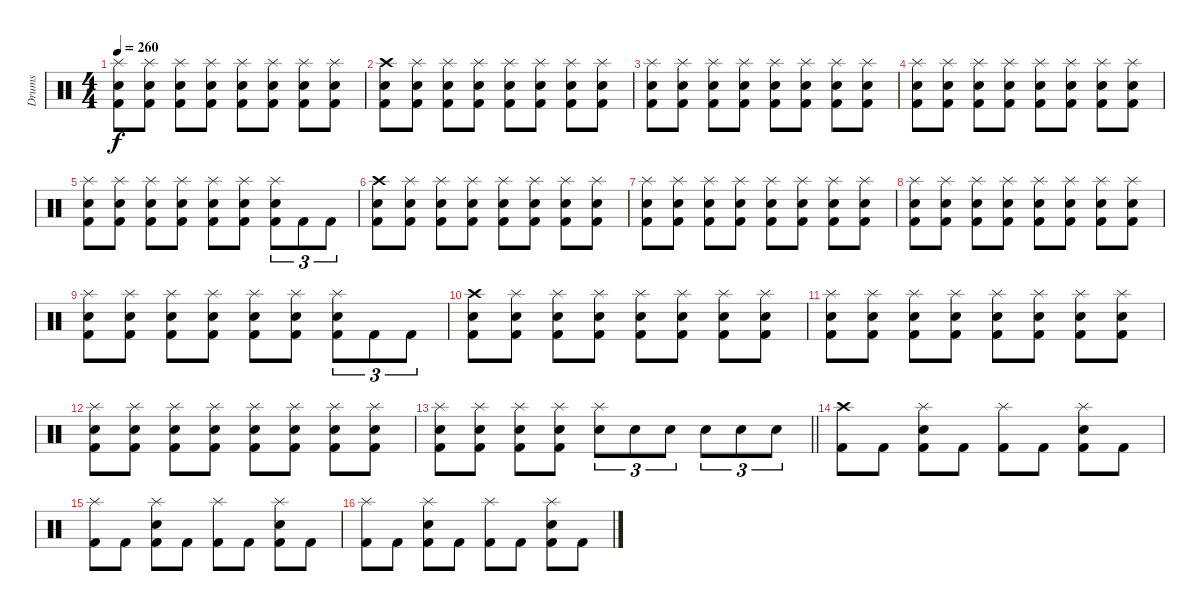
\track ("Drums" "Drums") {instrument percussion}
\staff {score}
\articulation defaults
\ts (4 4)
\tempo 260
\clef neutral
\ks c
("Splash (hit)" "Electric Snare (hit)" "Kick (hit) 2").8{dy f} ("Splash (hit)" "Electric Snare (hit)" "Kick (hit) 2").8 ("Splash (hit)" "Electric Snare (hit)" "Kick (hit) 2").8 ("Splash (hit)" "Electric Snare (hit)" "Kick (hit) 2").8 ("Splash (hit)" "Electric Snare (hit)" "Kick (hit) 2").8 ("Splash (hit)" "Electric Snare (hit)" "Kick (hit) 2").8 ("Splash (hit)" "Electric Snare (hit)" "Kick (hit) 2").8 ("Splash (hit)" "Electric Snare (hit)" "Kick (hit) 2").8 |
("Crash high (hit)" "Electric Snare (hit)" "Kick (hit) 2").8 ("Splash (hit)" "Electric Snare (hit)" "Kick (hit) 2").8 ("Splash (hit)" "Electric Snare (hit)" "Kick (hit) 2").8 ("Splash (hit)" "Electric Snare (hit)" "Kick (hit) 2").8 ("Splash (hit)" "Electric Snare (hit)" "Kick (hit) 2").8 ("Splash (hit)" "Electric Snare (hit)" "Kick (hit) 2").8 ("Splash (hit)" "Electric Snare (hit)" "Kick (hit) 2").8 ("Splash (hit)" "Electric Snare (hit)" "Kick (hit) 2").8 |
("Splash (hit)" "Electric Snare (hit)" "Kick (hit) 2").8 ("Splash (hit)" "Electric Snare (hit)" "Kick (hit) 2").8 ("Splash (hit)" "Electric Snare (hit)" "Kick (hit) 2").8 ("Splash (hit)" "Electric Snare (hit)" "Kick (hit) 2").8 ("Splash (hit)" "Electric Snare (hit)" "Kick (hit) 2").8 ("Splash (hit)" "Electric Snare (hit)" "Kick (hit) 2").8 ("Splash (hit)" "Electric Snare (hit)" "Kick (hit) 2").8 ("Splash (hit)" "Electric Snare (hit)" "Kick (hit) 2").8 |
("Splash (hit)" "Electric Snare (hit)" "Kick (hit) 2").8 ("Splash (hit)" "Electric Snare (hit)" "Kick (hit) 2").8 ("Splash (hit)" "Electric Snare (hit)" "Kick (hit) 2").8 ("Splash (hit)" "Electric Snare (hit)" "Kick (hit) 2").8 ("Splash (hit)" "Electric Snare (hit)" "Kick (hit) 2").8 ("Splash (hit)" "Electric Snare (hit)" "Kick (hit) 2").8 ("Splash (hit)" "Electric Snare (hit)" "Kick (hit) 2").8 ("Splash (hit)" "Electric Snare (hit)" "Kick (hit) 2").8 |
("Splash (hit)" "Electric Snare (hit)" "Kick (hit) 2").8 ("Splash (hit)" "Electric Snare (hit)" "Kick (hit) 2").8 ("Splash (hit)" "Electric Snare (hit)" "Kick (hit) 2").8 ("Splash (hit)" "Electric Snare (hit)" "Kick (hit) 2").8 ("Splash (hit)" "Electric Snare (hit)" "Kick (hit) 2").8 ("Splash (hit)" "Electric Snare (hit)" "Kick (hit) 2").8 ("Splash (hit)" "Electric Snare (hit)" "Kick (hit) 2").8{tu (3 2)} "Kick (hit) 2".8{tu (3 2)} "Kick (hit) 2".8{tu (3 2)} |
("Crash high (hit)" "Electric Snare (hit)" "Kick (hit) 2").8 ("Splash (hit)" "Electric Snare (hit)" "Kick (hit) 2").8 ("Splash (hit)" "Electric Snare (hit)" "Kick (hit) 2").8 ("Splash (hit)" "Electric Snare (hit)" "Kick (hit) 2").8 ("Splash (hit)" "Electric Snare (hit)" "Kick (hit) 2").8 ("Splash (hit)" "Electric Snare (hit)" "Kick (hit) 2").8 ("Splash (hit)" "Electric Snare (hit)" "Kick (hit) 2").8 ("Splash (hit)" "Electric Snare (hit)" "Kick (hit) 2").8 |
("Splash (hit)" "Electric Snare (hit)" "Kick (hit) 2").8 ("Splash (hit)" "Electric Snare (hit)" "Kick (hit) 2").8 ("Splash (hit)" "Electric Snare (hit)" "Kick (hit) 2").8 ("Splash (hit)" "Electric Snare (hit)" "Kick (hit) 2").8 ("Splash (hit)" "Electric Snare (hit)" "Kick (hit) 2").8 ("Splash (hit)" "Electric Snare (hit)" "Kick (hit) 2").8 ("Splash (hit)" "Electric Snare (hit)" "Kick (hit) 2").8 ("Splash (hit)" "Electric Snare (hit)" "Kick (hit) 2").8 |
("Splash (hit)" "Electric Snare (hit)" "Kick (hit) 2").8 ("Splash (hit)" "Electric Snare (hit)" "Kick (hit) 2").8 ("Splash (hit)" "Electric Snare (hit)" "Kick (hit) 2").8 ("Splash (hit)" "Electric Snare (hit)" "Kick (hit) 2").8 ("Splash (hit)" "Electric Snare (hit)" "Kick (hit) 2").8 ("Splash (hit)" "Electric Snare (hit)" "Kick (hit) 2").8 ("Splash (hit)" "Electric Snare (hit)" "Kick (hit) 2").8 ("Splash (hit)" "Electric Snare (hit)" "Kick (hit) 2").8 |
("Splash (hit)" "Electric Snare (hit)" "Kick (hit) 2").8 ("Splash (hit)" "Electric Snare (hit)" "Kick (hit) 2").8 ("Splash (hit)" "Electric Snare (hit)" "Kick (hit) 2").8 ("Splash (hit)" "Electric Snare (hit)" "Kick (hit) 2").8 ("Splash (hit)" "Electric Snare (hit)" "Kick (hit) 2").8 ("Splash (hit)" "Electric Snare (hit)" "Kick (hit) 2").8 ("Splash (hit)" "Electric Snare (hit)" "Kick (hit) 2").8{tu (3 2)} "Kick (hit) 2".8{tu (3 2)} "Kick (hit) 2".8{tu (3 2)} |
("Crash high (hit)" "Electric Snare (hit)" "Kick (hit) 2").8 ("Splash (hit)" "Electric Snare (hit)" "Kick (hit) 2").8 ("Splash (hit)" "Electric Snare (hit)" "Kick (hit) 2").8 ("Splash (hit)" "Electric Snare (hit)" "Kick (hit) 2").8 ("Splash (hit)" "Electric Snare (hit)" "Kick (hit) 2").8 ("Splash (hit)" "Electric Snare (hit)" "Kick (hit) 2").8 ("Splash (hit)" "Electric Snare (hit)" "Kick (hit) 2").8 ("Splash (hit)" "Electric Snare (hit)" "Kick (hit) 2").8 |
("Splash (hit)" "Electric Snare (hit)" "Kick (hit) 2").8 ("Splash (hit)" "Electric Snare (hit)" "Kick (hit) 2").8 ("Splash (hit)" "Electric Snare (hit)" "Kick (hit) 2").8 ("Splash (hit)" "Electric Snare (hit)" "Kick (hit) 2").8 ("Splash (hit)" "Electric Snare (hit)" "Kick (hit) 2").8 ("Splash (hit)" "Electric Snare (hit)" "Kick (hit) 2").8 ("Splash (hit)" "Electric Snare (hit)" "Kick (hit) 2").8 ("Splash (hit)" "Electric Snare (hit)" "Kick (hit) 2").8 |
("Splash (hit)" "Electric Snare (hit)" "Kick (hit) 2").8 ("Splash (hit)" "Electric Snare (hit)" "Kick (hit) 2").8 ("Splash (hit)" "Electric Snare (hit)" "Kick (hit) 2").8 ("Splash (hit)" "Electric Snare (hit)" "Kick (hit) 2").8 ("Splash (hit)" "Electric Snare (hit)" "Kick (hit) 2").8 ("Splash (hit)" "Electric Snare (hit)" "Kick (hit) 2").8 ("Splash (hit)" "Electric Snare (hit)" "Kick (hit) 2").8 ("Splash (hit)" "Electric Snare (hit)" "Kick (hit) 2").8 |
\barLineRight lightlight
("Splash (hit)" "Electric Snare (hit)" "Kick (hit) 2").8 ("Splash (hit)" "Electric Snare (hit)" "Kick (hit) 2").8 ("Splash (hit)" "Electric Snare (hit)" "Kick (hit) 2").8 ("Splash (hit)" "Electric Snare (hit)" "Kick (hit) 2").8 ("Splash (hit)" "Electric Snare (hit)").8{tu (3 2)} "Electric Snare (hit)".8{tu (3 2)} "Electric Snare (hit)".8{tu (3 2)} "Electric Snare (hit)".8{tu (3 2)} "Electric Snare (hit)".8{tu (3 2)} "Electric Snare (hit)".8{tu (3 2)} |
("Crash high (hit)" "Kick (hit) 2").8 "Kick (hit) 2".8 ("Splash (hit)" "Electric Snare (hit)" "Kick (hit) 2").8 "Kick (hit) 2".8 ("Splash (hit)" "Kick (hit) 2").8 "Kick (hit) 2".8 ("Splash (hit)" "Electric Snare (hit)" "Kick (hit) 2").8 "Kick (hit) 2".8 |
("Splash (hit)" "Kick (hit) 2").8 "Kick (hit) 2".8 ("Splash (hit)" "Electric Snare (hit)" "Kick (hit) 2").8 "Kick (hit) 2".8 ("Splash (hit)" "Kick (hit) 2").8 "Kick (hit) 2".8 ("Splash (hit)" "Electric Snare (hit)" "Kick (hit) 2").8 "Kick (hit) 2".8 |
("Splash (hit)" "Kick (hit) 2").8 "Kick (hit) 2".8 ("Splash (hit)" "Electric Snare (hit)" "Kick (hit) 2").8 "Kick (hit) 2".8 ("Splash (hit)" "Kick (hit) 2").8 "Kick (hit) 2".8 ("Splash (hit)" "Electric Snare (hit)" "Kick (hit) 2").8 "Kick (hit) 2".8
